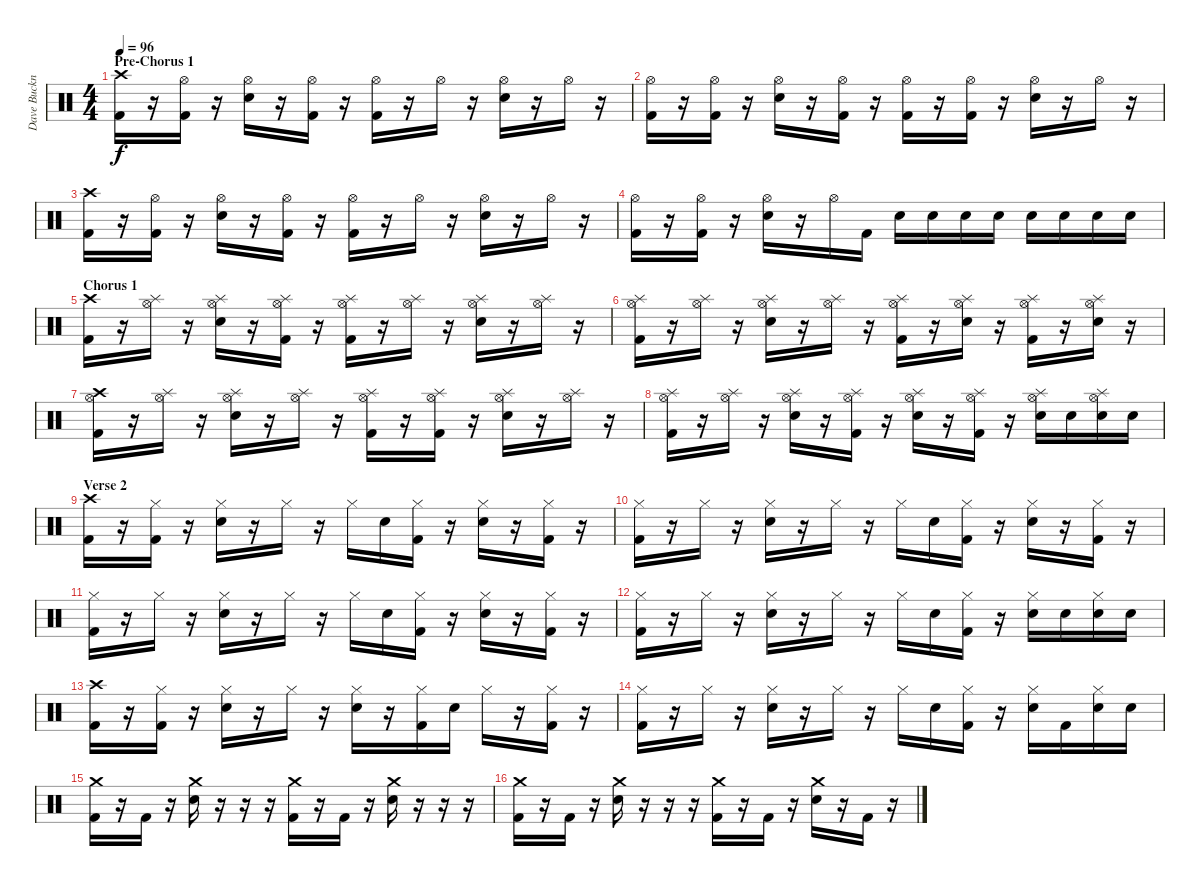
\track ("Dave Buckner - Drums" "Dave Buckn") {instrument percussion}
\staff {score}
\articulation defaults
\ts (4 4)
\section ("" "Pre-Chorus 1")
\tempo 96
\clef neutral
\ks c
("Crash high (hit)" "Kick (hit) 2").16{dy f} r.16 ("Hi-Hat (open)" "Kick (hit) 2").16 r.16 ("Hi-Hat (open)" "Snare (hit) 2").16 r.16 ("Hi-Hat (open)" "Kick (hit) 2").16 r.16 ("Hi-Hat (open)" "Kick (hit) 2").16 r.16 "Hi-Hat (open)".16 r.16 ("Hi-Hat (open)" "Snare (hit) 2").16 r.16 "Hi-Hat (open)".16 r.16 |
("Hi-Hat (open)" "Kick (hit) 2").16 r.16 ("Hi-Hat (open)" "Kick (hit) 2").16 r.16 ("Hi-Hat (open)" "Snare (hit) 2").16 r.16 ("Hi-Hat (open)" "Kick (hit) 2").16 r.16 ("Hi-Hat (open)" "Kick (hit) 2").16 r.16 ("Hi-Hat (open)" "Kick (hit) 2").16 r.16 ("Hi-Hat (open)" "Snare (hit) 2").16 r.16 "Hi-Hat (open)".16 r.16 |
("Crash high (hit)" "Kick (hit) 2").16 r.16 ("Hi-Hat (open)" "Kick (hit) 2").16 r.16 ("Hi-Hat (open)" "Snare (hit) 2").16 r.16 ("Hi-Hat (open)" "Kick (hit) 2").16 r.16 ("Hi-Hat (open)" "Kick (hit) 2").16 r.16 "Hi-Hat (open)".16 r.16 ("Hi-Hat (open)" "Snare (hit) 2").16 r.16 "Hi-Hat (open)".16 r.16 |
("Hi-Hat (open)" "Kick (hit) 2").16 r.16 ("Hi-Hat (open)" "Kick (hit) 2").16 r.16 ("Hi-Hat (open)" "Snare (hit) 2").16 r.16 "Hi-Hat (open)".16 "Kick (hit) 2".16 "Snare (hit) 2".16 "Snare (hit) 2".16 "Snare (hit) 2".16 "Snare (hit) 2".16 "Snare (hit) 2".16 "Snare (hit) 2".16 "Snare (hit) 2".16 "Snare (hit) 2".16 |
\section ("" "Chorus 1")
("Crash high (hit)" "Kick (hit) 2").16 r.16 ("Hi-Hat (open)" "Splash (hit)").16 r.16 ("Hi-Hat (open)" "Splash (hit)" "Snare (hit) 2").16 r.16 ("Hi-Hat (open)" "Splash (hit)" "Kick (hit) 2").16 r.16 ("Hi-Hat (open)" "Splash (hit)" "Kick (hit) 2").16 r.16 ("Hi-Hat (open)" "Splash (hit)").16 r.16 ("Hi-Hat (open)" "Splash (hit)" "Snare (hit) 2").16 r.16 ("Hi-Hat (open)" "Splash (hit)").16 r.16 |
("Hi-Hat (open)" "Splash (hit)" "Kick (hit) 2").16 r.16 ("Hi-Hat (open)" "Splash (hit)").16 r.16 ("Hi-Hat (open)" "Splash (hit)" "Snare (hit) 2").16 r.16 ("Hi-Hat (open)" "Splash (hit)").16 r.16 ("Hi-Hat (open)" "Splash (hit)" "Kick (hit) 2").16 r.16 ("Hi-Hat (open)" "Splash (hit)" "Snare (hit) 2").16 r.16 ("Hi-Hat (open)" "Splash (hit)" "Kick (hit) 2").16 r.16 ("Hi-Hat (open)" "Splash (hit)" "Snare (hit) 2").16 r.16 |
("Crash high (hit)" "Hi-Hat (open)" "Kick (hit) 2").16 r.16 ("Hi-Hat (open)" "Splash (hit)").16 r.16 ("Hi-Hat (open)" "Splash (hit)" "Snare (hit) 2").16 r.16 ("Hi-Hat (open)" "Splash (hit)").16 r.16 ("Hi-Hat (open)" "Splash (hit)" "Kick (hit) 2").16 r.16 ("Hi-Hat (open)" "Splash (hit)" "Kick (hit) 2").16 r.16 ("Hi-Hat (open)" "Splash (hit)" "Snare (hit) 2").16 r.16 ("Hi-Hat (open)" "Splash (hit)").16 r.16 |
("Hi-Hat (open)" "Splash (hit)" "Kick (hit) 2").16 r.16 ("Hi-Hat (open)" "Splash (hit)").16 r.16 ("Hi-Hat (open)" "Splash (hit)" "Snare (hit) 2").16 r.16 ("Hi-Hat (open)" "Splash (hit)" "Kick (hit) 2").16 r.16 ("Hi-Hat (open)" "Splash (hit)" "Snare (hit) 2").16 r.16 ("Hi-Hat (open)" "Splash (hit)" "Kick (hit) 2").16 r.16 ("Hi-Hat (open)" "Splash (hit)" "Snare (hit) 2").16 "Snare (hit) 2".16 ("Hi-Hat (open)" "Splash (hit)" "Snare (hit) 2").16 "Snare (hit) 2".16 |
\section ("" "Verse 2")
("Crash high (hit)" "Kick (hit) 2").16 r.16 ("Hi-Hat (closed)" "Kick (hit) 2").16 r.16 ("Hi-Hat (closed)" "Snare (hit) 2").16 r.16 "Hi-Hat (closed)".16 r.16 "Hi-Hat (closed)".16 "Snare (hit) 2".16 ("Hi-Hat (closed)" "Kick (hit) 2").16 r.16 ("Hi-Hat (closed)" "Snare (hit) 2").16 r.16 ("Hi-Hat (closed)" "Kick (hit) 2").16 r.16 |
("Hi-Hat (closed)" "Kick (hit) 2").16 r.16 "Hi-Hat (closed)".16 r.16 ("Hi-Hat (closed)" "Snare (hit) 2").16 r.16 "Hi-Hat (closed)".16 r.16 "Hi-Hat (closed)".16 "Snare (hit) 2".16 ("Hi-Hat (closed)" "Kick (hit) 2").16 r.16 ("Hi-Hat (closed)" "Snare (hit) 2").16 r.16 ("Hi-Hat (closed)" "Kick (hit) 2").16 r.16 |
("Hi-Hat (closed)" "Kick (hit) 2").16 r.16 "Hi-Hat (closed)".16 r.16 ("Hi-Hat (closed)" "Snare (hit) 2").16 r.16 "Hi-Hat (closed)".16 r.16 "Hi-Hat (closed)".16 "Snare (hit) 2".16 ("Hi-Hat (closed)" "Kick (hit) 2").16 r.16 ("Hi-Hat (closed)" "Snare (hit) 2").16 r.16 ("Hi-Hat (closed)" "Kick (hit) 2").16 r.16 |
("Hi-Hat (closed)" "Kick (hit) 2").16 r.16 "Hi-Hat (closed)".16 r.16 ("Hi-Hat (closed)" "Snare (hit) 2").16 r.16 "Hi-Hat (closed)".16 r.16 "Hi-Hat (closed)".16 "Snare (hit) 2".16 ("Hi-Hat (closed)" "Kick (hit) 2").16 r.16 ("Hi-Hat (closed)" "Snare (hit) 2").16 "Snare (hit) 2".16 ("Hi-Hat (closed)" "Snare (hit) 2").16 "Snare (hit) 2".16 |
("Crash high (hit)" "Kick (hit) 2").16 r.16 ("Hi-Hat (closed)" "Kick (hit) 2").16 r.16 ("Hi-Hat (closed)" "Snare (hit) 2").16 r.16 "Hi-Hat (closed)".16 r.16 ("Hi-Hat (closed)" "Snare (hit) 2").16 r.16 ("Hi-Hat (closed)" "Kick (hit) 2").16 "Snare (hit) 2".16 "Hi-Hat (closed)".16 r.16 ("Hi-Hat (closed)" "Kick (hit) 2").16 r.16 |
("Hi-Hat (closed)" "Kick (hit) 2").16 r.16 "Hi-Hat (closed)".16 r.16 ("Hi-Hat (closed)" "Snare (hit) 2").16 r.16 "Hi-Hat (closed)".16 r.16 "Hi-Hat (closed)".16 "Snare (hit) 2".16 ("Hi-Hat (closed)" "Kick (hit) 2").16 r.16 ("Hi-Hat (closed)" "Snare (hit) 2").16 "Kick (hit) 2".16 ("Hi-Hat (closed)" "Snare (hit) 2").16 "Snare (hit) 2".16 |
("Crash medium (hit)" "Kick (hit) 2").16 r.16 "Kick (hit) 2".16 r.16 ("Crash medium (hit)" "Snare (hit) 2").16 r.16 r.16 r.16 ("Crash medium (hit)" "Kick (hit) 2").16 r.16 "Kick (hit) 2".16 r.16 ("Crash medium (hit)" "Snare (hit) 2").16 r.16 r.16 r.16 |
("Crash medium (hit)" "Kick (hit) 2").16 r.16 "Kick (hit) 2".16 r.16 ("Crash medium (hit)" "Snare (hit) 2").16 r.16 r.16 r.16 ("Crash medium (hit)" "Kick (hit) 2").16 r.16 "Kick (hit) 2".16 r.16 ("Crash medium (hit)" "Snare (hit) 2").16 r.16 "Kick (hit) 2".16 r.16
